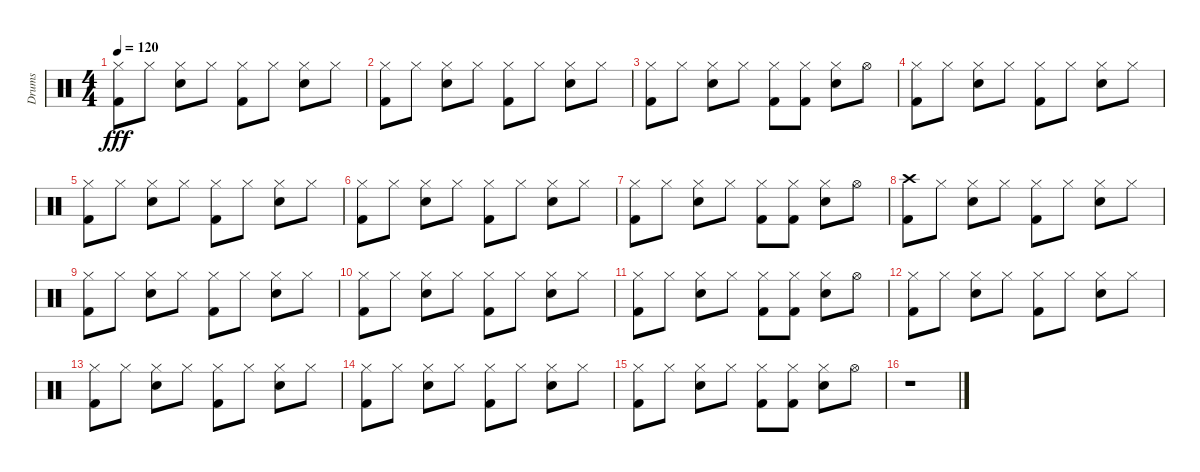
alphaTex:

\track ("Drums" "Drums") {instrument percussion}
\staff {score}
\articulation defaults
\ts (4 4)
\tempo 120
\clef neutral
\ks c
("Hi-Hat (closed)" "Kick (hit) 2").8{dy fff} "Hi-Hat (closed)".8 ("Hi-Hat (closed)" "Snare (hit) 2").8 "Hi-Hat (closed)".8 ("Hi-Hat (closed)" "Kick (hit) 2").8 "Hi-Hat (closed)".8 ("Hi-Hat (closed)" "Snare (hit) 2").8 "Hi-Hat (closed)".8 |
("Hi-Hat (closed)" "Kick (hit) 2").8 "Hi-Hat (closed)".8 ("Hi-Hat (closed)" "Snare (hit) 2").8 "Hi-Hat (closed)".8 ("Hi-Hat (closed)" "Kick (hit) 2").8 "Hi-Hat (closed)".8 ("Hi-Hat (closed)" "Snare (hit) 2").8 "Hi-Hat (closed)".8 |
("Hi-Hat (closed)" "Kick (hit) 2").8 "Hi-Hat (closed)".8 ("Hi-Hat (closed)" "Snare (hit) 2").8 "Hi-Hat (closed)".8 ("Hi-Hat (closed)" "Kick (hit) 2").8 ("Hi-Hat (closed)" "Kick (hit) 2").8 ("Hi-Hat (closed)" "Snare (hit) 2").8 "Hi-Hat (open)".8 |
("Hi-Hat (closed)" "Kick (hit) 2").8 "Hi-Hat (closed)".8 ("Hi-Hat (closed)" "Snare (hit) 2").8 "Hi-Hat (closed)".8 ("Hi-Hat (closed)" "Kick (hit) 2").8 "Hi-Hat (closed)".8 ("Hi-Hat (closed)" "Snare (hit) 2").8 "Hi-Hat (closed)".8 |
("Hi-Hat (closed)" "Kick (hit) 2").8 "Hi-Hat (closed)".8 ("Hi-Hat (closed)" "Snare (hit) 2").8 "Hi-Hat (closed)".8 ("Hi-Hat (closed)" "Kick (hit) 2").8 "Hi-Hat (closed)".8 ("Hi-Hat (closed)" "Snare (hit) 2").8 "Hi-Hat (closed)".8 |
("Hi-Hat (closed)" "Kick (hit) 2").8 "Hi-Hat (closed)".8 ("Hi-Hat (closed)" "Snare (hit) 2").8 "Hi-Hat (closed)".8 ("Hi-Hat (closed)" "Kick (hit) 2").8 "Hi-Hat (closed)".8 ("Hi-Hat (closed)" "Snare (hit) 2").8 "Hi-Hat (closed)".8 |
("Hi-Hat (closed)" "Kick (hit) 2").8 "Hi-Hat (closed)".8 ("Hi-Hat (closed)" "Snare (hit) 2").8 "Hi-Hat (closed)".8 ("Hi-Hat (closed)" "Kick (hit) 2").8 ("Hi-Hat (closed)" "Kick (hit) 2").8 ("Hi-Hat (closed)" "Snare (hit) 2").8 "Hi-Hat (open)".8 |
("Crash high (hit)" "Kick (hit) 2").8 "Hi-Hat (closed)".8 ("Hi-Hat (closed)" "Snare (hit) 2").8 "Hi-Hat (closed)".8 ("Hi-Hat (closed)" "Kick (hit) 2").8 "Hi-Hat (closed)".8 ("Hi-Hat (closed)" "Snare (hit) 2").8 "Hi-Hat (closed)".8 |
("Hi-Hat (closed)" "Kick (hit) 2").8 "Hi-Hat (closed)".8 ("Hi-Hat (closed)" "Snare (hit) 2").8 "Hi-Hat (closed)".8 ("Hi-Hat (closed)" "Kick (hit) 2").8 "Hi-Hat (closed)".8 ("Hi-Hat (closed)" "Snare (hit) 2").8 "Hi-Hat (closed)".8 |
("Hi-Hat (closed)" "Kick (hit) 2").8 "Hi-Hat (closed)".8 ("Hi-Hat (closed)" "Snare (hit) 2").8 "Hi-Hat (closed)".8 ("Hi-Hat (closed)" "Kick (hit) 2").8 "Hi-Hat (closed)".8 ("Hi-Hat (closed)" "Snare (hit) 2").8 "Hi-Hat (closed)".8 |
("Hi-Hat (closed)" "Kick (hit) 2").8 "Hi-Hat (closed)".8 ("Hi-Hat (closed)" "Snare (hit) 2").8 "Hi-Hat (closed)".8 ("Hi-Hat (closed)" "Kick (hit) 2").8 ("Hi-Hat (closed)" "Kick (hit) 2").8 ("Hi-Hat (closed)" "Snare (hit) 2").8 "Hi-Hat (open)".8 |
("Hi-Hat (closed)" "Kick (hit) 2").8 "Hi-Hat (closed)".8 ("Hi-Hat (closed)" "Snare (hit) 2").8 "Hi-Hat (closed)".8 ("Hi-Hat (closed)" "Kick (hit) 2").8 "Hi-Hat (closed)".8 ("Hi-Hat (closed)" "Snare (hit) 2").8 "Hi-Hat (closed)".8 |
("Hi-Hat (closed)" "Kick (hit) 2").8 "Hi-Hat (closed)".8 ("Hi-Hat (closed)" "Snare (hit) 2").8 "Hi-Hat (closed)".8 ("Hi-Hat (closed)" "Kick (hit) 2").8 "Hi-Hat (closed)".8 ("Hi-Hat (closed)" "Snare (hit) 2").8 "Hi-Hat (closed)".8 |
("Hi-Hat (closed)" "Kick (hit) 2").8 "Hi-Hat (closed)".8 ("Hi-Hat (closed)" "Snare (hit) 2").8 "Hi-Hat (closed)".8 ("Hi-Hat (closed)" "Kick (hit) 2").8 "Hi-Hat (closed)".8 ("Hi-Hat (closed)" "Snare (hit) 2").8 "Hi-Hat (closed)".8 |
("Hi-Hat (closed)" "Kick (hit) 2").8 "Hi-Hat (closed)".8 ("Hi-Hat (closed)" "Snare (hit) 2").8 "Hi-Hat (closed)".8 ("Hi-Hat (closed)" "Kick (hit) 2").8 ("Hi-Hat (closed)" "Kick (hit) 2").8 ("Hi-Hat (closed)" "Snare (hit) 2").8 "Hi-Hat (open)".8 |
r.1
